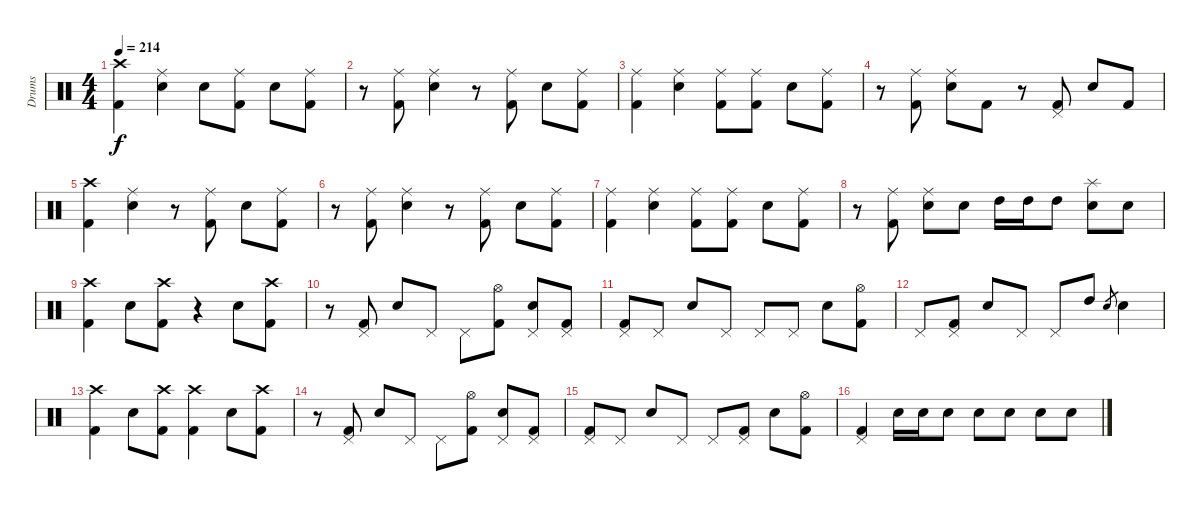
\track ("Drums" "Drums") {instrument percussion}
\staff {score}
\articulation defaults
\ts (4 4)
\tempo 214
\clef neutral
\ks c
("Crash high (hit)" "Kick (hit) 2").4{dy f} ("Ride (middle)" "Electric Snare (hit)").4 "Electric Snare (hit)".8 ("Ride (middle)" "Kick (hit) 2").8 "Electric Snare (hit)".8 ("Ride (middle)" "Kick (hit) 2").8 |
r.8 ("Ride (middle)" "Kick (hit) 2").8 ("Ride (middle)" "Electric Snare (hit)").4 r.8 ("Ride (middle)" "Kick (hit) 2").8 "Electric Snare (hit)".8 ("Ride (middle)" "Kick (hit) 2").8 |
("Ride (middle)" "Kick (hit) 2").4 ("Ride (middle)" "Electric Snare (hit)").4 ("Ride (middle)" "Kick (hit) 2").8 ("Ride (middle)" "Kick (hit) 2").8 "Electric Snare (hit)".8 ("Ride (middle)" "Kick (hit) 2").8 |
r.8 ("Ride (middle)" "Kick (hit) 2").8 ("Ride (middle)" "Electric Snare (hit)").8 "Kick (hit) 2".8 r.8 ("Pedal Hi-Hat (hit)" "Kick (hit) 2").8 "Electric Snare (hit)".8 "Kick (hit) 2".8 |
("Crash high (hit)" "Kick (hit) 2").4 ("Ride (middle)" "Electric Snare (hit)").4 r.8 ("Ride (middle)" "Kick (hit) 2").8 "Electric Snare (hit)".8 ("Ride (middle)" "Kick (hit) 2").8 |
r.8 ("Ride (middle)" "Kick (hit) 2").8 ("Ride (middle)" "Electric Snare (hit)").4 r.8 ("Ride (middle)" "Kick (hit) 2").8 "Electric Snare (hit)".8 ("Ride (middle)" "Kick (hit) 2").8 |
("Ride (middle)" "Kick (hit) 2").4 ("Ride (middle)" "Electric Snare (hit)").4 ("Ride (middle)" "Kick (hit) 2").8 ("Ride (middle)" "Kick (hit) 2").8 "Electric Snare (hit)".8 ("Ride (middle)" "Kick (hit) 2").8 |
r.8 ("Ride (middle)" "Kick (hit) 2").8 ("Ride (middle)" "Electric Snare (hit)").8 "Electric Snare (hit)".8 "High Tom (hit)".16 "High Tom (hit)".16 "High Tom (hit)".8 ("Splash (hit)" "Electric Snare (hit)").8 "Electric Snare (hit)".8 |
("Crash high (hit)" "Kick (hit) 2").4 "Electric Snare (hit)".8 ("Crash high (hit)" "Kick (hit) 2").8 r.4 "Electric Snare (hit)".8 ("Crash high (hit)" "Kick (hit) 2").8 |
r.8 ("Pedal Hi-Hat (hit)" "Kick (hit) 2").8 "Electric Snare (hit)".8 "Pedal Hi-Hat (hit)".8 "Pedal Hi-Hat (hit)".8 ("Hi-Hat (open)" "Kick (hit) 2").8 ("Pedal Hi-Hat (hit)" "Electric Snare (hit)").8 ("Pedal Hi-Hat (hit)" "Kick (hit) 2").8 |
("Pedal Hi-Hat (hit)" "Kick (hit) 2").8 "Pedal Hi-Hat (hit)".8 "Electric Snare (hit)".8 "Pedal Hi-Hat (hit)".8 "Pedal Hi-Hat (hit)".8 "Pedal Hi-Hat (hit)".8 "Electric Snare (hit)".8 ("Hi-Hat (open)" "Kick (hit) 2").8 |
"Pedal Hi-Hat (hit)".8 ("Pedal Hi-Hat (hit)" "Kick (hit) 2").8 "Electric Snare (hit)".8 "Pedal Hi-Hat (hit)".8 "Pedal Hi-Hat (hit)".8 "High Tom (hit)".8 "Electric Snare (hit)".8{gr} "Electric Snare (hit)".4 |
("Crash high (hit)" "Kick (hit) 2").4 "Electric Snare (hit)".8 ("Crash high (hit)" "Kick (hit) 2").8 ("Crash high (hit)" "Kick (hit) 2").4 "Electric Snare (hit)".8 ("Crash high (hit)" "Kick (hit) 2").8 |
r.8 ("Pedal Hi-Hat (hit)" "Kick (hit) 2").8 "Electric Snare (hit)".8 "Pedal Hi-Hat (hit)".8 "Pedal Hi-Hat (hit)".8 ("Hi-Hat (open)" "Kick (hit) 2").8 ("Pedal Hi-Hat (hit)" "Electric Snare (hit)").8 ("Pedal Hi-Hat (hit)" "Kick (hit) 2").8 |
("Pedal Hi-Hat (hit)" "Kick (hit) 2").8 "Pedal Hi-Hat (hit)".8 "Electric Snare (hit)".8 "Pedal Hi-Hat (hit)".8 "Pedal Hi-Hat (hit)".8 ("Pedal Hi-Hat (hit)" "Kick (hit) 2").8 "Electric Snare (hit)".8 ("Hi-Hat (open)" "Kick (hit) 2").8 |
("Pedal Hi-Hat (hit)" "Kick (hit) 2").4 "Electric Snare (hit)".16 "Electric Snare (hit)".16 "Electric Snare (hit)".8 "Electric Snare (hit)".8 "Electric Snare (hit)".8 "Electric Snare (hit)".8 "Electric Snare (hit)".8
